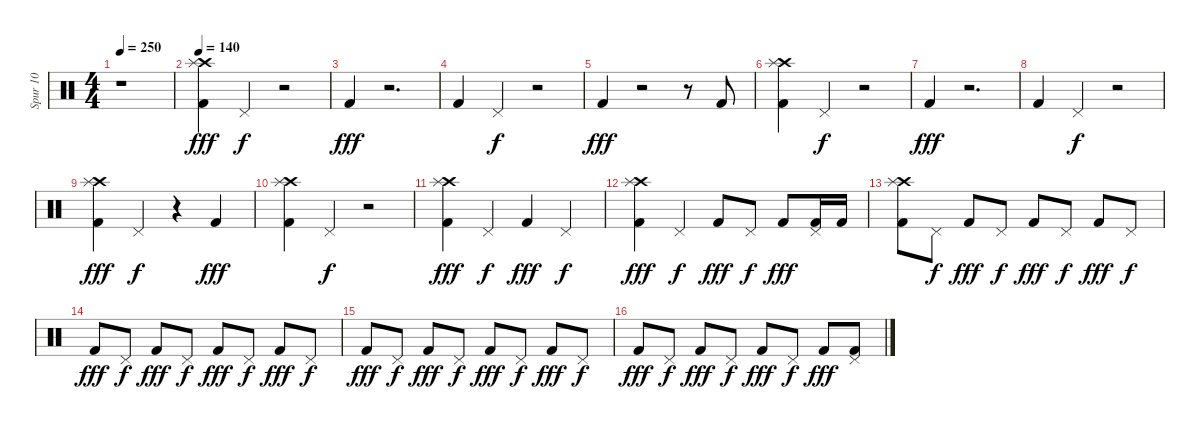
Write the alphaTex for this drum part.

\track ("Spur 10" "Spur 10") {instrument percussion}
\staff {score}
\articulation defaults
\ts (4 4)
\tempo 250
\clef neutral
\ks c
r.1{dy fff} |
\tempo 140
("Crash high (hit)" "Splash (hit)" "Kick (hit) 2").4 "Pedal Hi-Hat (hit)".4{dy f balance 8} r.2 |
"Kick (hit) 2".4{dy fff} r.2{d} |
"Kick (hit) 2".4 "Pedal Hi-Hat (hit)".4{dy f} r.2 |
"Kick (hit) 2".4{dy fff} r.2 r.8 "Kick (hit) 2".8 |
("Crash high (hit)" "Splash (hit)" "Kick (hit) 2").4 "Pedal Hi-Hat (hit)".4{dy f} r.2 |
"Kick (hit) 2".4{dy fff} r.2{d} |
"Kick (hit) 2".4 "Pedal Hi-Hat (hit)".4{dy f} r.2 |
("Crash high (hit)" "Splash (hit)" "Kick (hit) 2").4{dy fff} "Pedal Hi-Hat (hit)".4{dy f} r.4 "Kick (hit) 2".4{dy fff} |
("Crash high (hit)" "Splash (hit)" "Kick (hit) 2").4 "Pedal Hi-Hat (hit)".4{dy f} r.2 |
("Crash high (hit)" "Splash (hit)" "Kick (hit) 2").4{dy fff} "Pedal Hi-Hat (hit)".4{dy f} "Kick (hit) 2".4{dy fff} "Pedal Hi-Hat (hit)".4{dy f} |
("Crash high (hit)" "Splash (hit)" "Kick (hit) 2").4{dy fff} "Pedal Hi-Hat (hit)".4{dy f} "Kick (hit) 2".8{dy fff} "Pedal Hi-Hat (hit)".8{dy f} "Kick (hit) 2".8{dy fff} ("Pedal Hi-Hat (hit)" "Kick (hit) 2").16 "Kick (hit) 2".16 |
("Crash high (hit)" "Splash (hit)" "Kick (hit) 2").8 "Pedal Hi-Hat (hit)".8{dy f} "Kick (hit) 2".8{dy fff} "Pedal Hi-Hat (hit)".8{dy f} "Kick (hit) 2".8{dy fff} "Pedal Hi-Hat (hit)".8{dy f} "Kick (hit) 2".8{dy fff} "Pedal Hi-Hat (hit)".8{dy f} |
"Kick (hit) 2".8{dy fff} "Pedal Hi-Hat (hit)".8{dy f} "Kick (hit) 2".8{dy fff} "Pedal Hi-Hat (hit)".8{dy f} "Kick (hit) 2".8{dy fff} "Pedal Hi-Hat (hit)".8{dy f} "Kick (hit) 2".8{dy fff} "Pedal Hi-Hat (hit)".8{dy f} |
"Kick (hit) 2".8{dy fff} "Pedal Hi-Hat (hit)".8{dy f} "Kick (hit) 2".8{dy fff} "Pedal Hi-Hat (hit)".8{dy f} "Kick (hit) 2".8{dy fff} "Pedal Hi-Hat (hit)".8{dy f} "Kick (hit) 2".8{dy fff} "Pedal Hi-Hat (hit)".8{dy f} |
"Kick (hit) 2".8{dy fff} "Pedal Hi-Hat (hit)".8{dy f} "Kick (hit) 2".8{dy fff} "Pedal Hi-Hat (hit)".8{dy f} "Kick (hit) 2".8{dy fff} "Pedal Hi-Hat (hit)".8{dy f} "Kick (hit) 2".8{dy fff} ("Pedal Hi-Hat (hit)" "Kick (hit) 2").8
